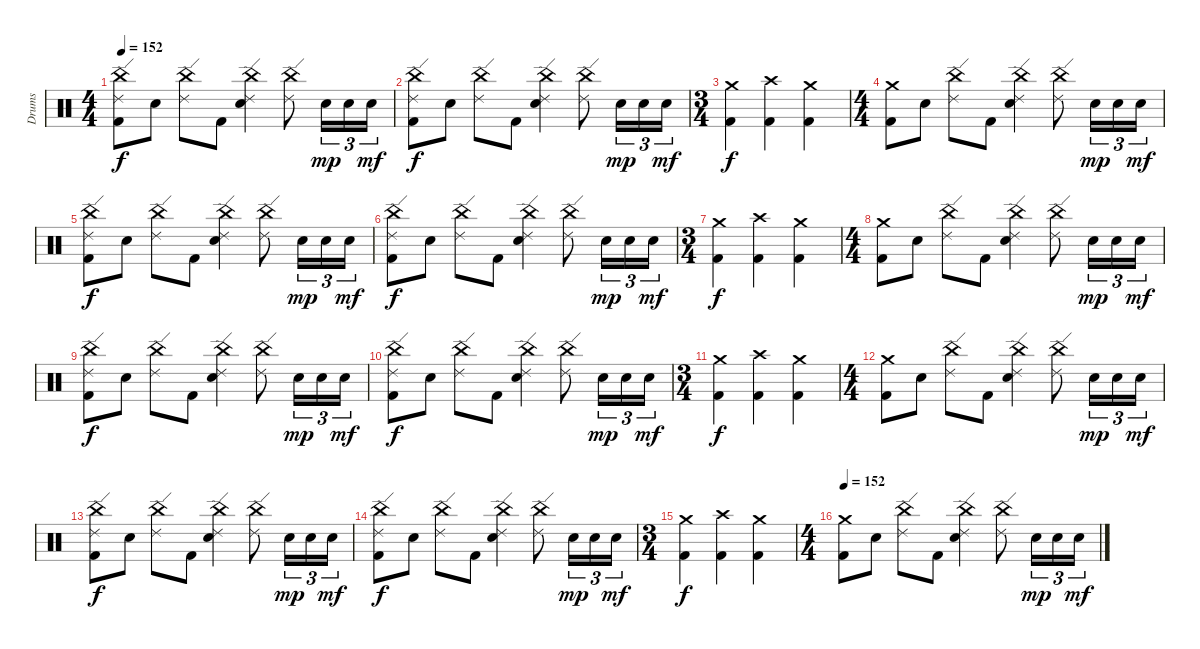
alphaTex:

\track ("Drums" "Drums") {instrument percussion}
\staff {score}
\articulation defaults
\ts (4 4)
\tempo 152
\clef neutral
\ks c
("China (hit)" "Ride (edge) 2" "Kick (hit) 2").8{dy f} "Snare (hit) 2".8 ("China (hit)" "Ride (edge) 2").8 "Kick (hit) 2".8 ("China (hit)" "Ride (edge) 2" "Snare (hit) 2").4 ("China (hit)" "Ride (edge) 2").8 "Snare (hit) 2".16{tu (3 2) dy mp} "Snare (hit) 2".16{tu (3 2)} "Snare (hit) 2".16{tu (3 2) dy mf} |
("China (hit)" "Ride (edge) 2" "Kick (hit) 2").8{dy f} "Snare (hit) 2".8 ("China (hit)" "Ride (edge) 2").8 "Kick (hit) 2".8 ("China (hit)" "Ride (edge) 2" "Snare (hit) 2").4 ("China (hit)" "Ride (edge) 2").8 "Snare (hit) 2".16{tu (3 2) dy mp} "Snare (hit) 2".16{tu (3 2)} "Snare (hit) 2".16{tu (3 2) dy mf} |
\ts (3 4)
("Crash medium (hit)" "Kick (hit) 2").4{dy f} ("Crash high (hit)" "Kick (hit) 2").4 ("Crash medium (hit)" "Kick (hit) 2").4 |
\ts (4 4)
("Crash medium (hit)" "Kick (hit) 2").8 "Snare (hit) 2".8 ("China (hit)" "Ride (edge) 2").8 "Kick (hit) 2".8 ("China (hit)" "Ride (edge) 2" "Snare (hit) 2").4 ("China (hit)" "Ride (edge) 2").8 "Snare (hit) 2".16{tu (3 2) dy mp} "Snare (hit) 2".16{tu (3 2)} "Snare (hit) 2".16{tu (3 2) dy mf} |
("China (hit)" "Ride (edge) 2" "Kick (hit) 2").8{dy f} "Snare (hit) 2".8 ("China (hit)" "Ride (edge) 2").8 "Kick (hit) 2".8 ("China (hit)" "Ride (edge) 2" "Snare (hit) 2").4 ("China (hit)" "Ride (edge) 2").8 "Snare (hit) 2".16{tu (3 2) dy mp} "Snare (hit) 2".16{tu (3 2)} "Snare (hit) 2".16{tu (3 2) dy mf} |
("China (hit)" "Ride (edge) 2" "Kick (hit) 2").8{dy f} "Snare (hit) 2".8 ("China (hit)" "Ride (edge) 2").8 "Kick (hit) 2".8 ("China (hit)" "Ride (edge) 2" "Snare (hit) 2").4 ("China (hit)" "Ride (edge) 2").8 "Snare (hit) 2".16{tu (3 2) dy mp} "Snare (hit) 2".16{tu (3 2)} "Snare (hit) 2".16{tu (3 2) dy mf} |
\ts (3 4)
("Crash medium (hit)" "Kick (hit) 2").4{dy f} ("Crash high (hit)" "Kick (hit) 2").4 ("Crash medium (hit)" "Kick (hit) 2").4 |
\ts (4 4)
("Crash medium (hit)" "Kick (hit) 2").8 "Snare (hit) 2".8 ("China (hit)" "Ride (edge) 2").8 "Kick (hit) 2".8 ("China (hit)" "Ride (edge) 2" "Snare (hit) 2").4 ("China (hit)" "Ride (edge) 2").8 "Snare (hit) 2".16{tu (3 2) dy mp} "Snare (hit) 2".16{tu (3 2)} "Snare (hit) 2".16{tu (3 2) dy mf} |
("China (hit)" "Ride (edge) 2" "Kick (hit) 2").8{dy f} "Snare (hit) 2".8 ("China (hit)" "Ride (edge) 2").8 "Kick (hit) 2".8 ("China (hit)" "Ride (edge) 2" "Snare (hit) 2").4 ("China (hit)" "Ride (edge) 2").8 "Snare (hit) 2".16{tu (3 2) dy mp} "Snare (hit) 2".16{tu (3 2)} "Snare (hit) 2".16{tu (3 2) dy mf} |
("China (hit)" "Ride (edge) 2" "Kick (hit) 2").8{dy f} "Snare (hit) 2".8 ("China (hit)" "Ride (edge) 2").8 "Kick (hit) 2".8 ("China (hit)" "Ride (edge) 2" "Snare (hit) 2").4 ("China (hit)" "Ride (edge) 2").8 "Snare (hit) 2".16{tu (3 2) dy mp} "Snare (hit) 2".16{tu (3 2)} "Snare (hit) 2".16{tu (3 2) dy mf} |
\ts (3 4)
("Crash medium (hit)" "Kick (hit) 2").4{dy f} ("Crash high (hit)" "Kick (hit) 2").4 ("Crash medium (hit)" "Kick (hit) 2").4 |
\ts (4 4)
("Crash medium (hit)" "Kick (hit) 2").8 "Snare (hit) 2".8 ("China (hit)" "Ride (edge) 2").8 "Kick (hit) 2".8 ("China (hit)" "Ride (edge) 2" "Snare (hit) 2").4 ("China (hit)" "Ride (edge) 2").8 "Snare (hit) 2".16{tu (3 2) dy mp} "Snare (hit) 2".16{tu (3 2)} "Snare (hit) 2".16{tu (3 2) dy mf} |
("China (hit)" "Ride (edge) 2" "Kick (hit) 2").8{dy f} "Snare (hit) 2".8 ("China (hit)" "Ride (edge) 2").8 "Kick (hit) 2".8 ("China (hit)" "Ride (edge) 2" "Snare (hit) 2").4 ("China (hit)" "Ride (edge) 2").8 "Snare (hit) 2".16{tu (3 2) dy mp} "Snare (hit) 2".16{tu (3 2)} "Snare (hit) 2".16{tu (3 2) dy mf} |
("China (hit)" "Ride (edge) 2" "Kick (hit) 2").8{dy f} "Snare (hit) 2".8 ("China (hit)" "Ride (edge) 2").8 "Kick (hit) 2".8 ("China (hit)" "Ride (edge) 2" "Snare (hit) 2").4 ("China (hit)" "Ride (edge) 2").8 "Snare (hit) 2".16{tu (3 2) dy mp} "Snare (hit) 2".16{tu (3 2)} "Snare (hit) 2".16{tu (3 2) dy mf} |
\ts (3 4)
("Crash medium (hit)" "Kick (hit) 2").4{dy f} ("Crash high (hit)" "Kick (hit) 2").4 ("Crash medium (hit)" "Kick (hit) 2").4 |
\ts (4 4)
\tempo 152
("Crash medium (hit)" "Kick (hit) 2").8 "Snare (hit) 2".8 ("China (hit)" "Ride (edge) 2").8 "Kick (hit) 2".8 ("China (hit)" "Ride (edge) 2" "Snare (hit) 2").4 ("China (hit)" "Ride (edge) 2").8 "Snare (hit) 2".16{tu (3 2) dy mp} "Snare (hit) 2".16{tu (3 2)} "Snare (hit) 2".16{tu (3 2) dy mf}
